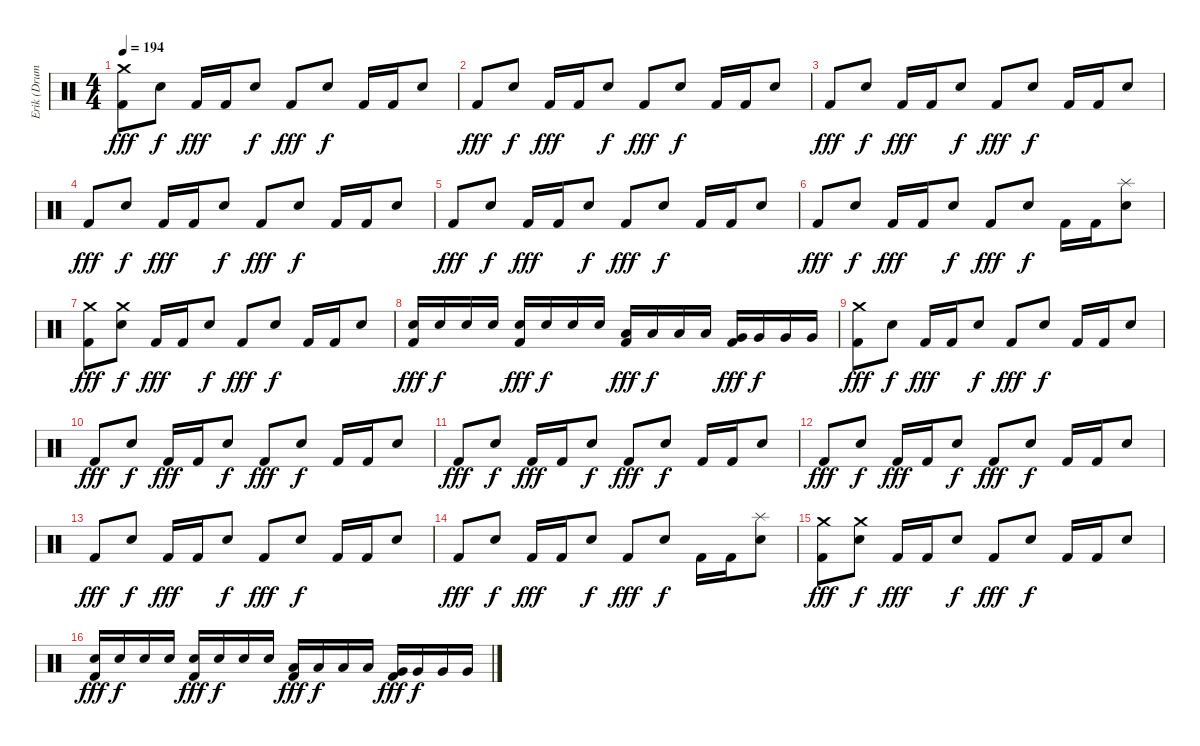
\track ("Erik (Drums)" "Erik (Drum") {instrument percussion}
\staff {score}
\articulation defaults
\ts (4 4)
\tempo 194
\clef neutral
\ks c
("Crash medium (hit)" "Kick (hit) 2").8{dy fff} "Electric Snare (hit)".8{dy f} "Kick (hit) 2".16{dy fff} "Kick (hit) 2".16 "Electric Snare (hit)".8{dy f} "Kick (hit) 2".8{dy fff} "Electric Snare (hit)".8{dy f} "Kick (hit) 2".16 "Kick (hit) 2".16 "Electric Snare (hit)".8 |
"Kick (hit) 2".8{dy fff} "Electric Snare (hit)".8{dy f} "Kick (hit) 2".16{dy fff} "Kick (hit) 2".16 "Electric Snare (hit)".8{dy f} "Kick (hit) 2".8{dy fff} "Electric Snare (hit)".8{dy f} "Kick (hit) 2".16 "Kick (hit) 2".16 "Electric Snare (hit)".8 |
"Kick (hit) 2".8{dy fff} "Electric Snare (hit)".8{dy f} "Kick (hit) 2".16{dy fff} "Kick (hit) 2".16 "Electric Snare (hit)".8{dy f} "Kick (hit) 2".8{dy fff} "Electric Snare (hit)".8{dy f} "Kick (hit) 2".16 "Kick (hit) 2".16 "Electric Snare (hit)".8 |
"Kick (hit) 2".8{dy fff} "Electric Snare (hit)".8{dy f} "Kick (hit) 2".16{dy fff} "Kick (hit) 2".16 "Electric Snare (hit)".8{dy f} "Kick (hit) 2".8{dy fff} "Electric Snare (hit)".8{dy f} "Kick (hit) 2".16 "Kick (hit) 2".16 "Electric Snare (hit)".8 |
"Kick (hit) 2".8{dy fff} "Electric Snare (hit)".8{dy f} "Kick (hit) 2".16{dy fff} "Kick (hit) 2".16 "Electric Snare (hit)".8{dy f} "Kick (hit) 2".8{dy fff} "Electric Snare (hit)".8{dy f} "Kick (hit) 2".16 "Kick (hit) 2".16 "Electric Snare (hit)".8 |
"Kick (hit) 2".8{dy fff} "Electric Snare (hit)".8{dy f} "Kick (hit) 2".16{dy fff} "Kick (hit) 2".16 "Electric Snare (hit)".8{dy f} "Kick (hit) 2".8{dy fff} "Electric Snare (hit)".8{dy f} "Kick (hit) 2".16 "Kick (hit) 2".16 ("Splash (hit)" "Electric Snare (hit)").8 |
("Crash medium (hit)" "Kick (hit) 2").8{dy fff} ("Crash medium (hit)" "Electric Snare (hit)").8{dy f} "Kick (hit) 2".16{dy fff} "Kick (hit) 2".16 "Electric Snare (hit)".8{dy f} "Kick (hit) 2".8{dy fff} "Electric Snare (hit)".8{dy f} "Kick (hit) 2".16 "Kick (hit) 2".16 "Electric Snare (hit)".8 |
("Electric Snare (hit)" "Kick (hit) 2").16{dy fff} "Electric Snare (hit)".16{dy f} "Electric Snare (hit)".16 "Electric Snare (hit)".16 ("Electric Snare (hit)" "Kick (hit) 2").16{dy fff} "Electric Snare (hit)".16{dy f} "Electric Snare (hit)".16 "Electric Snare (hit)".16 ("Low Tom (hit)" "Kick (hit) 2").16{dy fff} "Low Tom (hit)".16{dy f} "Low Tom (hit)".16 "Low Tom (hit)".16 ("Very Low Tom (hit)" "Kick (hit) 2").16{dy fff} "Very Low Tom (hit)".16{dy f} "Very Low Tom (hit)".16 "Very Low Tom (hit)".16 |
("Crash medium (hit)" "Kick (hit) 2").8{dy fff} "Electric Snare (hit)".8{dy f} "Kick (hit) 2".16{dy fff} "Kick (hit) 2".16 "Electric Snare (hit)".8{dy f} "Kick (hit) 2".8{dy fff} "Electric Snare (hit)".8{dy f} "Kick (hit) 2".16 "Kick (hit) 2".16 "Electric Snare (hit)".8 |
"Kick (hit) 2".8{dy fff} "Electric Snare (hit)".8{dy f} "Kick (hit) 2".16{dy fff} "Kick (hit) 2".16 "Electric Snare (hit)".8{dy f} "Kick (hit) 2".8{dy fff} "Electric Snare (hit)".8{dy f} "Kick (hit) 2".16 "Kick (hit) 2".16 "Electric Snare (hit)".8 |
"Kick (hit) 2".8{dy fff} "Electric Snare (hit)".8{dy f} "Kick (hit) 2".16{dy fff} "Kick (hit) 2".16 "Electric Snare (hit)".8{dy f} "Kick (hit) 2".8{dy fff} "Electric Snare (hit)".8{dy f} "Kick (hit) 2".16 "Kick (hit) 2".16 "Electric Snare (hit)".8 |
"Kick (hit) 2".8{dy fff} "Electric Snare (hit)".8{dy f} "Kick (hit) 2".16{dy fff} "Kick (hit) 2".16 "Electric Snare (hit)".8{dy f} "Kick (hit) 2".8{dy fff} "Electric Snare (hit)".8{dy f} "Kick (hit) 2".16 "Kick (hit) 2".16 "Electric Snare (hit)".8 |
"Kick (hit) 2".8{dy fff} "Electric Snare (hit)".8{dy f} "Kick (hit) 2".16{dy fff} "Kick (hit) 2".16 "Electric Snare (hit)".8{dy f} "Kick (hit) 2".8{dy fff} "Electric Snare (hit)".8{dy f} "Kick (hit) 2".16 "Kick (hit) 2".16 "Electric Snare (hit)".8 |
"Kick (hit) 2".8{dy fff} "Electric Snare (hit)".8{dy f} "Kick (hit) 2".16{dy fff} "Kick (hit) 2".16 "Electric Snare (hit)".8{dy f} "Kick (hit) 2".8{dy fff} "Electric Snare (hit)".8{dy f} "Kick (hit) 2".16 "Kick (hit) 2".16 ("Splash (hit)" "Electric Snare (hit)").8 |
("Crash medium (hit)" "Kick (hit) 2").8{dy fff} ("Crash medium (hit)" "Electric Snare (hit)").8{dy f} "Kick (hit) 2".16{dy fff} "Kick (hit) 2".16 "Electric Snare (hit)".8{dy f} "Kick (hit) 2".8{dy fff} "Electric Snare (hit)".8{dy f} "Kick (hit) 2".16 "Kick (hit) 2".16 "Electric Snare (hit)".8 |
("Electric Snare (hit)" "Kick (hit) 2").16{dy fff} "Electric Snare (hit)".16{dy f} "Electric Snare (hit)".16 "Electric Snare (hit)".16 ("Electric Snare (hit)" "Kick (hit) 2").16{dy fff} "Electric Snare (hit)".16{dy f} "Electric Snare (hit)".16 "Electric Snare (hit)".16 ("Low Tom (hit)" "Kick (hit) 2").16{dy fff} "Low Tom (hit)".16{dy f} "Low Tom (hit)".16 "Low Tom (hit)".16 ("Very Low Tom (hit)" "Kick (hit) 2").16{dy fff} "Very Low Tom (hit)".16{dy f} "Very Low Tom (hit)".16 "Very Low Tom (hit)".16
